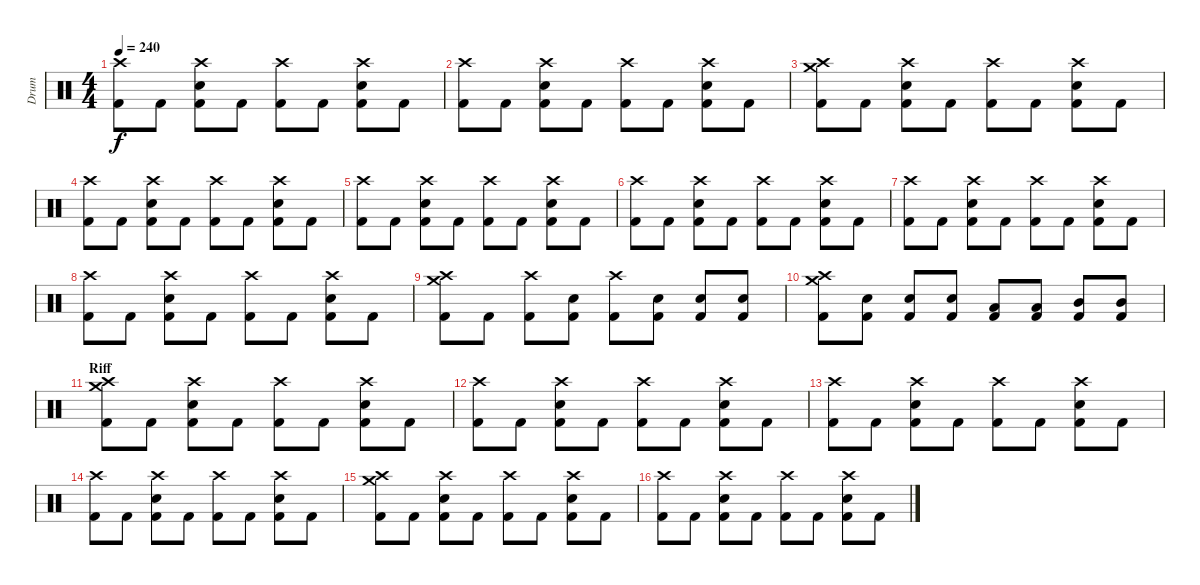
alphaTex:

\track ("Drum" "Drum") {instrument percussion}
\staff {score}
\articulation defaults
\ts (4 4)
\tempo 240
\clef neutral
\ks c
("Crash high (hit)" "Kick (hit) 2").8{dy f} "Kick (hit) 2".8 ("Crash high (hit)" "Kick (hit) 2" "Electric Snare (hit)").8 "Kick (hit) 2".8 ("Crash high (hit)" "Kick (hit) 2").8 "Kick (hit) 2".8 ("Crash high (hit)" "Kick (hit) 2" "Electric Snare (hit)").8 "Kick (hit) 2".8 |
("Crash high (hit)" "Kick (hit) 2").8 "Kick (hit) 2".8 ("Crash high (hit)" "Kick (hit) 2" "Electric Snare (hit)").8 "Kick (hit) 2".8 ("Crash high (hit)" "Kick (hit) 2").8 "Kick (hit) 2".8 ("Crash high (hit)" "Kick (hit) 2" "Electric Snare (hit)").8 "Kick (hit) 2".8 |
("Crash high (hit)" "Kick (hit) 2" "Crash medium (hit)").8 "Kick (hit) 2".8 ("Crash high (hit)" "Kick (hit) 2" "Electric Snare (hit)").8 "Kick (hit) 2".8 ("Crash high (hit)" "Kick (hit) 2").8 "Kick (hit) 2".8 ("Crash high (hit)" "Kick (hit) 2" "Electric Snare (hit)").8 "Kick (hit) 2".8 |
("Crash high (hit)" "Kick (hit) 2").8 "Kick (hit) 2".8 ("Crash high (hit)" "Kick (hit) 2" "Electric Snare (hit)").8 "Kick (hit) 2".8 ("Crash high (hit)" "Kick (hit) 2").8 "Kick (hit) 2".8 ("Crash high (hit)" "Kick (hit) 2" "Electric Snare (hit)").8 "Kick (hit) 2".8 |
("Crash high (hit)" "Kick (hit) 2").8 "Kick (hit) 2".8 ("Crash high (hit)" "Kick (hit) 2" "Electric Snare (hit)").8 "Kick (hit) 2".8 ("Crash high (hit)" "Kick (hit) 2").8 "Kick (hit) 2".8 ("Crash high (hit)" "Kick (hit) 2" "Electric Snare (hit)").8 "Kick (hit) 2".8 |
("Crash high (hit)" "Kick (hit) 2").8 "Kick (hit) 2".8 ("Crash high (hit)" "Kick (hit) 2" "Electric Snare (hit)").8 "Kick (hit) 2".8 ("Crash high (hit)" "Kick (hit) 2").8 "Kick (hit) 2".8 ("Crash high (hit)" "Kick (hit) 2" "Electric Snare (hit)").8 "Kick (hit) 2".8 |
("Crash high (hit)" "Kick (hit) 2").8 "Kick (hit) 2".8 ("Crash high (hit)" "Kick (hit) 2" "Electric Snare (hit)").8 "Kick (hit) 2".8 ("Crash high (hit)" "Kick (hit) 2").8 "Kick (hit) 2".8 ("Crash high (hit)" "Kick (hit) 2" "Electric Snare (hit)").8 "Kick (hit) 2".8 |
("Crash high (hit)" "Kick (hit) 2").8 "Kick (hit) 2".8 ("Crash high (hit)" "Kick (hit) 2" "Electric Snare (hit)").8 "Kick (hit) 2".8 ("Crash high (hit)" "Kick (hit) 2").8 "Kick (hit) 2".8 ("Crash high (hit)" "Kick (hit) 2" "Electric Snare (hit)").8 "Kick (hit) 2".8 |
("Crash high (hit)" "Kick (hit) 2" "Crash medium (hit)").8 "Kick (hit) 2".8 ("Crash high (hit)" "Kick (hit) 2").8 ("Kick (hit) 2" "Electric Snare (hit)").8 ("Crash high (hit)" "Kick (hit) 2").8 ("Kick (hit) 2" "Electric Snare (hit)").8 ("Kick (hit) 2" "Electric Snare (hit)").8 ("Kick (hit) 2" "Electric Snare (hit)").8 |
("Crash high (hit)" "Kick (hit) 2" "Crash medium (hit)").8 ("Kick (hit) 2" "Electric Snare (hit)").8 ("Kick (hit) 2" "Electric Snare (hit)").8 ("Kick (hit) 2" "Electric Snare (hit)").8 ("Kick (hit) 2" "Low Tom (hit)").8 ("Kick (hit) 2" "Low Tom (hit)").8 ("Kick (hit) 2" "Mid Tom (hit)").8 ("Kick (hit) 2" "Mid Tom (hit)").8 |
\section ("" "Riff")
("Crash high (hit)" "Kick (hit) 2" "Crash medium (hit)").8 "Kick (hit) 2".8 ("Crash high (hit)" "Kick (hit) 2" "Electric Snare (hit)").8 "Kick (hit) 2".8 ("Crash high (hit)" "Kick (hit) 2").8 "Kick (hit) 2".8 ("Crash high (hit)" "Kick (hit) 2" "Electric Snare (hit)").8 "Kick (hit) 2".8 |
("Crash high (hit)" "Kick (hit) 2").8 "Kick (hit) 2".8 ("Crash high (hit)" "Kick (hit) 2" "Electric Snare (hit)").8 "Kick (hit) 2".8 ("Crash high (hit)" "Kick (hit) 2").8 "Kick (hit) 2".8 ("Crash high (hit)" "Kick (hit) 2" "Electric Snare (hit)").8 "Kick (hit) 2".8 |
("Crash high (hit)" "Kick (hit) 2").8 "Kick (hit) 2".8 ("Crash high (hit)" "Kick (hit) 2" "Electric Snare (hit)").8 "Kick (hit) 2".8 ("Crash high (hit)" "Kick (hit) 2").8 "Kick (hit) 2".8 ("Crash high (hit)" "Kick (hit) 2" "Electric Snare (hit)").8 "Kick (hit) 2".8 |
("Crash high (hit)" "Kick (hit) 2").8 "Kick (hit) 2".8 ("Crash high (hit)" "Kick (hit) 2" "Electric Snare (hit)").8 "Kick (hit) 2".8 ("Crash high (hit)" "Kick (hit) 2").8 "Kick (hit) 2".8 ("Crash high (hit)" "Kick (hit) 2" "Electric Snare (hit)").8 "Kick (hit) 2".8 |
("Crash high (hit)" "Kick (hit) 2" "Crash medium (hit)").8 "Kick (hit) 2".8 ("Crash high (hit)" "Kick (hit) 2" "Electric Snare (hit)").8 "Kick (hit) 2".8 ("Crash high (hit)" "Kick (hit) 2").8 "Kick (hit) 2".8 ("Crash high (hit)" "Kick (hit) 2" "Electric Snare (hit)").8 "Kick (hit) 2".8 |
("Crash high (hit)" "Kick (hit) 2").8 "Kick (hit) 2".8 ("Crash high (hit)" "Kick (hit) 2" "Electric Snare (hit)").8 "Kick (hit) 2".8 ("Crash high (hit)" "Kick (hit) 2").8 "Kick (hit) 2".8 ("Crash high (hit)" "Kick (hit) 2" "Electric Snare (hit)").8 "Kick (hit) 2".8
